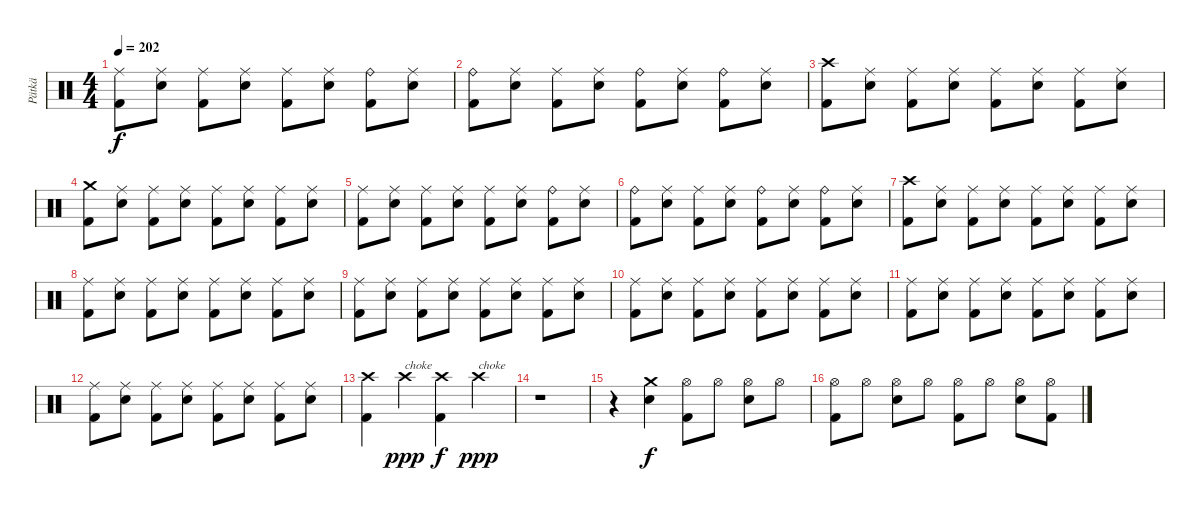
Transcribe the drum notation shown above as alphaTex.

\track ("Pätkä" "Pätkä") {instrument percussion}
\staff {score}
\articulation defaults
\ts (4 4)
\tempo 202
\clef neutral
\ks c
("Ride (middle)" "Kick (hit) 2").8{dy f} ("Ride (middle)" "Electric Snare (hit)").8 ("Ride (middle)" "Kick (hit) 2").8 ("Ride (middle)" "Electric Snare (hit)").8 ("Ride (middle)" "Kick (hit) 2").8 ("Ride (middle)" "Electric Snare (hit)").8 ("Ride (bell)" "Kick (hit) 2").8 ("Ride (middle)" "Electric Snare (hit)").8 |
("Ride (bell)" "Kick (hit) 2").8 ("Ride (middle)" "Electric Snare (hit)").8 ("Ride (middle)" "Kick (hit) 2").8 ("Ride (middle)" "Electric Snare (hit)").8 ("Ride (bell)" "Kick (hit) 2").8 ("Ride (middle)" "Electric Snare (hit)").8 ("Ride (bell)" "Kick (hit) 2").8 ("Ride (middle)" "Electric Snare (hit)").8 |
("Crash high (hit)" "Kick (hit) 2").8 ("Ride (middle)" "Electric Snare (hit)").8 ("Ride (middle)" "Kick (hit) 2").8 ("Ride (middle)" "Electric Snare (hit)").8 ("Ride (middle)" "Kick (hit) 2").8 ("Ride (middle)" "Electric Snare (hit)").8 ("Ride (middle)" "Kick (hit) 2").8 ("Ride (middle)" "Electric Snare (hit)").8 |
("Crash medium (hit)" "Kick (hit) 2").8 ("Ride (middle)" "Electric Snare (hit)").8 ("Ride (middle)" "Kick (hit) 2").8 ("Ride (middle)" "Electric Snare (hit)").8 ("Ride (middle)" "Kick (hit) 2").8 ("Ride (middle)" "Electric Snare (hit)").8 ("Ride (middle)" "Kick (hit) 2").8 ("Ride (middle)" "Electric Snare (hit)").8 |
("Ride (middle)" "Kick (hit) 2").8 ("Ride (middle)" "Electric Snare (hit)").8 ("Ride (middle)" "Kick (hit) 2").8 ("Ride (middle)" "Electric Snare (hit)").8 ("Ride (middle)" "Kick (hit) 2").8 ("Ride (middle)" "Electric Snare (hit)").8 ("Ride (bell)" "Kick (hit) 2").8 ("Ride (middle)" "Electric Snare (hit)").8 |
("Ride (bell)" "Kick (hit) 2").8 ("Ride (middle)" "Electric Snare (hit)").8 ("Ride (middle)" "Kick (hit) 2").8 ("Ride (middle)" "Electric Snare (hit)").8 ("Ride (bell)" "Kick (hit) 2").8 ("Ride (middle)" "Electric Snare (hit)").8 ("Ride (bell)" "Kick (hit) 2").8 ("Ride (middle)" "Electric Snare (hit)").8 |
("Crash high (hit)" "Kick (hit) 2").8 ("Ride (middle)" "Electric Snare (hit)").8 ("Ride (middle)" "Kick (hit) 2").8 ("Ride (middle)" "Electric Snare (hit)").8 ("Ride (middle)" "Kick (hit) 2").8 ("Ride (middle)" "Electric Snare (hit)").8 ("Ride (middle)" "Kick (hit) 2").8 ("Ride (middle)" "Electric Snare (hit)").8 |
("Ride (middle)" "Kick (hit) 2").8 ("Ride (middle)" "Electric Snare (hit)").8 ("Ride (middle)" "Kick (hit) 2").8 ("Ride (middle)" "Electric Snare (hit)").8 ("Ride (middle)" "Kick (hit) 2").8 ("Ride (middle)" "Electric Snare (hit)").8 ("Ride (middle)" "Kick (hit) 2").8 ("Ride (middle)" "Electric Snare (hit)").8 |
("Ride (middle)" "Kick (hit) 2").8 ("Ride (middle)" "Electric Snare (hit)").8 ("Ride (middle)" "Kick (hit) 2").8 ("Ride (middle)" "Electric Snare (hit)").8 ("Ride (middle)" "Kick (hit) 2").8 ("Ride (middle)" "Electric Snare (hit)").8 ("Ride (middle)" "Kick (hit) 2").8 ("Ride (middle)" "Electric Snare (hit)").8 |
("Ride (middle)" "Kick (hit) 2").8 ("Ride (middle)" "Electric Snare (hit)").8 ("Ride (middle)" "Kick (hit) 2").8 ("Ride (middle)" "Electric Snare (hit)").8 ("Ride (middle)" "Kick (hit) 2").8 ("Ride (middle)" "Electric Snare (hit)").8 ("Ride (middle)" "Kick (hit) 2").8 ("Ride (middle)" "Electric Snare (hit)").8 |
("Ride (middle)" "Kick (hit) 2").8 ("Ride (middle)" "Electric Snare (hit)").8 ("Ride (middle)" "Kick (hit) 2").8 ("Ride (middle)" "Electric Snare (hit)").8 ("Ride (middle)" "Kick (hit) 2").8 ("Ride (middle)" "Electric Snare (hit)").8 ("Ride (middle)" "Kick (hit) 2").8 ("Ride (middle)" "Electric Snare (hit)").8 |
("Ride (middle)" "Kick (hit) 2").8 ("Ride (middle)" "Electric Snare (hit)").8 ("Ride (middle)" "Kick (hit) 2").8 ("Ride (middle)" "Electric Snare (hit)").8 ("Ride (middle)" "Kick (hit) 2").8 ("Ride (middle)" "Electric Snare (hit)").8 ("Ride (middle)" "Kick (hit) 2").8 ("Ride (middle)" "Electric Snare (hit)").8 |
("Crash high (hit)" "Kick (hit) 2").4 "Crash high (hit)".4{txt "choke" dy ppp} ("Crash high (hit)" "Kick (hit) 2").4{dy f} "Crash high (hit)".4{txt "choke" dy ppp} |
r.1 |
r.4 ("Crash medium (hit)" "Electric Snare (hit)").4{dy f} ("Hi-Hat (open)" "Kick (hit) 2").8 "Hi-Hat (open)".8 ("Hi-Hat (open)" "Electric Snare (hit)").8 "Hi-Hat (open)".8 |
("Hi-Hat (open)" "Kick (hit) 2").8 "Hi-Hat (open)".8 ("Hi-Hat (open)" "Electric Snare (hit)").8 "Hi-Hat (open)".8 ("Hi-Hat (open)" "Kick (hit) 2").8 "Hi-Hat (open)".8 ("Hi-Hat (open)" "Electric Snare (hit)").8 ("Hi-Hat (open)" "Kick (hit) 2").8
